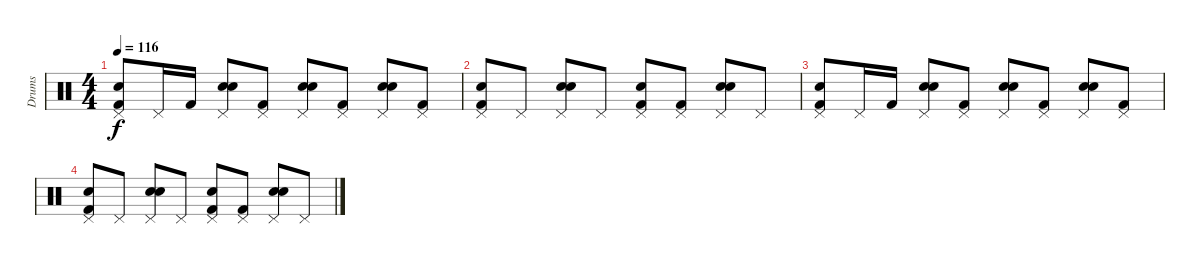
\track ("Drums" "Drums") {instrument percussion}
\staff {score}
\articulation defaults
\ts (4 4)
\tempo 116
\clef neutral
\ks c
("Hand Clap (hit)" "Pedal Hi-Hat (hit)" "Kick (hit) 2").8{dy f} "Pedal Hi-Hat (hit)".16 "Kick (hit) 2".16 ("Hand Clap (hit)" "Pedal Hi-Hat (hit)" "Snare (hit) 2").8 ("Pedal Hi-Hat (hit)" "Kick (hit) 2").8 ("Hand Clap (hit)" "Pedal Hi-Hat (hit)" "Snare (hit) 2").8 ("Pedal Hi-Hat (hit)" "Kick (hit) 2").8 ("Hand Clap (hit)" "Pedal Hi-Hat (hit)" "Snare (hit) 2").8 ("Pedal Hi-Hat (hit)" "Kick (hit) 2").8 |
("Hand Clap (hit)" "Pedal Hi-Hat (hit)" "Kick (hit) 2").8 "Pedal Hi-Hat (hit)".8 ("Hand Clap (hit)" "Pedal Hi-Hat (hit)" "Snare (hit) 2").8 "Pedal Hi-Hat (hit)".8 ("Hand Clap (hit)" "Pedal Hi-Hat (hit)" "Kick (hit) 2").8 ("Pedal Hi-Hat (hit)" "Kick (hit) 2").8 ("Hand Clap (hit)" "Pedal Hi-Hat (hit)" "Snare (hit) 2").8 "Pedal Hi-Hat (hit)".8 |
("Hand Clap (hit)" "Pedal Hi-Hat (hit)" "Kick (hit) 2").8 "Pedal Hi-Hat (hit)".16 "Kick (hit) 2".16 ("Hand Clap (hit)" "Pedal Hi-Hat (hit)" "Snare (hit) 2").8 ("Pedal Hi-Hat (hit)" "Kick (hit) 2").8 ("Hand Clap (hit)" "Pedal Hi-Hat (hit)" "Snare (hit) 2").8 ("Pedal Hi-Hat (hit)" "Kick (hit) 2").8 ("Hand Clap (hit)" "Pedal Hi-Hat (hit)" "Snare (hit) 2").8 ("Pedal Hi-Hat (hit)" "Kick (hit) 2").8 |
("Hand Clap (hit)" "Pedal Hi-Hat (hit)" "Kick (hit) 2").8 "Pedal Hi-Hat (hit)".8 ("Hand Clap (hit)" "Pedal Hi-Hat (hit)" "Snare (hit) 2").8 "Pedal Hi-Hat (hit)".8 ("Hand Clap (hit)" "Pedal Hi-Hat (hit)" "Kick (hit) 2").8 ("Pedal Hi-Hat (hit)" "Kick (hit) 2").8 ("Hand Clap (hit)" "Pedal Hi-Hat (hit)" "Snare (hit) 2").8 "Pedal Hi-Hat (hit)".8
